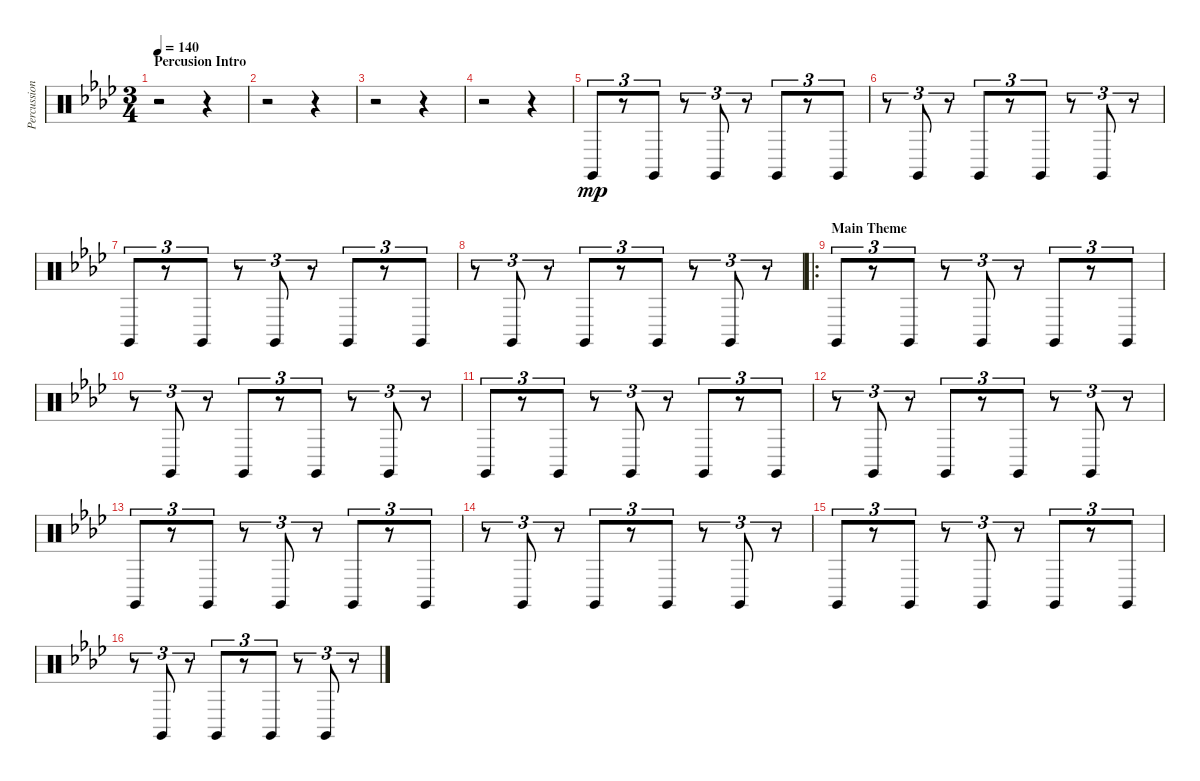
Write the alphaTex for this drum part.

\track ("Percussion" "Percussion") {instrument percussion}
\staff {score}
\articulation defaults
\ts (3 4)
\section ("" "Percusion Intro")
\tempo 140
\clef neutral
\ks fminor
r.2{dy mp} r.4 |
r.2 r.4 |
r.2 r.4 |
r.2 r.4 |
"Claves (hit)".8{tu (3 2)} r.8{tu (3 2)} "Claves (hit)".8{tu (3 2)} r.8{tu (3 2)} "Claves (hit)".8{tu (3 2)} r.8{tu (3 2)} "Claves (hit)".8{tu (3 2)} r.8{tu (3 2)} "Claves (hit)".8{tu (3 2)} |
r.8{tu (3 2)} "Claves (hit)".8{tu (3 2)} r.8{tu (3 2)} "Claves (hit)".8{tu (3 2)} r.8{tu (3 2)} "Claves (hit)".8{tu (3 2)} r.8{tu (3 2)} "Claves (hit)".8{tu (3 2)} r.8{tu (3 2)} |
"Claves (hit)".8{tu (3 2)} r.8{tu (3 2)} "Claves (hit)".8{tu (3 2)} r.8{tu (3 2)} "Claves (hit)".8{tu (3 2)} r.8{tu (3 2)} "Claves (hit)".8{tu (3 2)} r.8{tu (3 2)} "Claves (hit)".8{tu (3 2)} |
r.8{tu (3 2)} "Claves (hit)".8{tu (3 2)} r.8{tu (3 2)} "Claves (hit)".8{tu (3 2)} r.8{tu (3 2)} "Claves (hit)".8{tu (3 2)} r.8{tu (3 2)} "Claves (hit)".8{tu (3 2)} r.8{tu (3 2)} |
\ro
\section ("" "Main Theme")
"Claves (hit)".8{tu (3 2)} r.8{tu (3 2)} "Claves (hit)".8{tu (3 2)} r.8{tu (3 2)} "Claves (hit)".8{tu (3 2)} r.8{tu (3 2)} "Claves (hit)".8{tu (3 2)} r.8{tu (3 2)} "Claves (hit)".8{tu (3 2)} |
r.8{tu (3 2)} "Claves (hit)".8{tu (3 2)} r.8{tu (3 2)} "Claves (hit)".8{tu (3 2)} r.8{tu (3 2)} "Claves (hit)".8{tu (3 2)} r.8{tu (3 2)} "Claves (hit)".8{tu (3 2)} r.8{tu (3 2)} |
"Claves (hit)".8{tu (3 2)} r.8{tu (3 2)} "Claves (hit)".8{tu (3 2)} r.8{tu (3 2)} "Claves (hit)".8{tu (3 2)} r.8{tu (3 2)} "Claves (hit)".8{tu (3 2)} r.8{tu (3 2)} "Claves (hit)".8{tu (3 2)} |
r.8{tu (3 2)} "Claves (hit)".8{tu (3 2)} r.8{tu (3 2)} "Claves (hit)".8{tu (3 2)} r.8{tu (3 2)} "Claves (hit)".8{tu (3 2)} r.8{tu (3 2)} "Claves (hit)".8{tu (3 2)} r.8{tu (3 2)} |
"Claves (hit)".8{tu (3 2)} r.8{tu (3 2)} "Claves (hit)".8{tu (3 2)} r.8{tu (3 2)} "Claves (hit)".8{tu (3 2)} r.8{tu (3 2)} "Claves (hit)".8{tu (3 2)} r.8{tu (3 2)} "Claves (hit)".8{tu (3 2)} |
r.8{tu (3 2)} "Claves (hit)".8{tu (3 2)} r.8{tu (3 2)} "Claves (hit)".8{tu (3 2)} r.8{tu (3 2)} "Claves (hit)".8{tu (3 2)} r.8{tu (3 2)} "Claves (hit)".8{tu (3 2)} r.8{tu (3 2)} |
"Claves (hit)".8{tu (3 2)} r.8{tu (3 2)} "Claves (hit)".8{tu (3 2)} r.8{tu (3 2)} "Claves (hit)".8{tu (3 2)} r.8{tu (3 2)} "Claves (hit)".8{tu (3 2)} r.8{tu (3 2)} "Claves (hit)".8{tu (3 2)} |
r.8{tu (3 2)} "Claves (hit)".8{tu (3 2)} r.8{tu (3 2)} "Claves (hit)".8{tu (3 2)} r.8{tu (3 2)} "Claves (hit)".8{tu (3 2)} r.8{tu (3 2)} "Claves (hit)".8{tu (3 2)} r.8{tu (3 2)}
